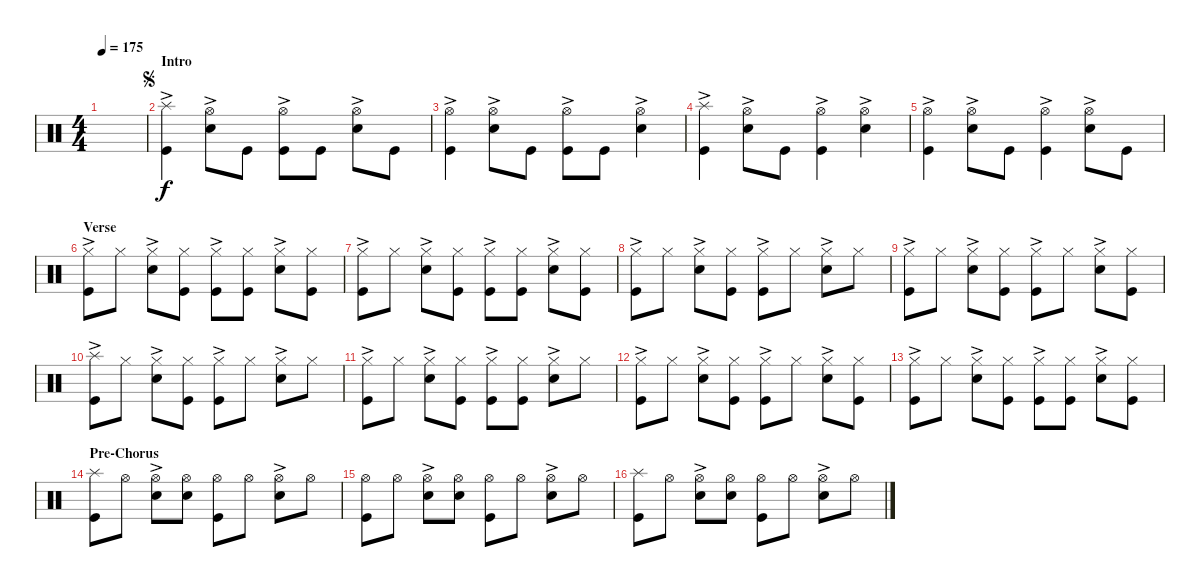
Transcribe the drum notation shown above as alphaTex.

\defaultSystemsLayout 4
\bracketExtendMode nobrackets
\singleTrackTrackNamePolicy hidden
\multiTrackTrackNamePolicy hidden
\firstSystemTrackNameOrientation horizontal
\otherSystemsTrackNameOrientation horizontal
\track ("Drumkit" "Drums") {instrument percussion}
\staff {score}
\articulation defaults
\ts (4 4)
\ac
\tempo 175
\clef neutral
\ks c
|
\section ("" "Intro")
\jump segno
("Kick (hit)"{ac} "Splash (hit)").4 ("Snare (hit) 2"{ac} "Hi-Hat (open)"{ac}).8 "Kick (hit)".8 ("Kick (hit)"{ac} "Hi-Hat (open)"{ac}).8 "Kick (hit)".8 ("Hi-Hat (open)"{ac} "Snare (hit) 2"{ac}).8 "Kick (hit)".8 |
("Kick (hit)"{ac} "Hi-Hat (open)"{ac}).4 ("Hi-Hat (open)"{ac} "Snare (hit) 2"{ac}).8 "Kick (hit)".8 ("Kick (hit)"{ac} "Hi-Hat (open)"{ac}).8 "Kick (hit)".8 ("Hi-Hat (open)"{ac} "Snare (hit) 2"{ac}).4 |
("Kick (hit)"{ac} "Splash (hit)").4 ("Snare (hit) 2"{ac} "Hi-Hat (open)"{ac}).8 "Kick (hit)".8 ("Kick (hit)"{ac} "Hi-Hat (open)"{ac}).4 ("Hi-Hat (open)"{ac} "Snare (hit) 2"{ac}).4 |
("Kick (hit)"{ac} "Hi-Hat (open)"{ac}).4 ("Hi-Hat (open)"{ac} "Snare (hit) 2"{ac}).8 "Kick (hit)".8 ("Kick (hit)"{ac} "Hi-Hat (open)"{ac}).4 ("Hi-Hat (open)"{ac} "Snare (hit) 2"{ac}).8 "Kick (hit)".8 |
\section ("" "Verse")
("Kick (hit)"{ac} "Hi-Hat (closed)").8 "Hi-Hat (closed)".8 ("Hi-Hat (closed)" "Snare (hit) 2"{ac}).8 ("Hi-Hat (closed)" "Kick (hit)").8 ("Kick (hit)"{ac} "Hi-Hat (closed)").8 ("Hi-Hat (closed)" "Kick (hit)").8 ("Hi-Hat (closed)" "Snare (hit) 2"{ac}).8 ("Hi-Hat (closed)" "Kick (hit)").8 |
("Kick (hit)"{ac} "Hi-Hat (closed)").8 "Hi-Hat (closed)".8 ("Hi-Hat (closed)" "Snare (hit) 2"{ac}).8 ("Hi-Hat (closed)" "Kick (hit)").8 ("Kick (hit)"{ac} "Hi-Hat (closed)").8 ("Hi-Hat (closed)" "Kick (hit)").8 ("Hi-Hat (closed)" "Snare (hit) 2"{ac}).8 ("Hi-Hat (closed)" "Kick (hit)").8 |
("Kick (hit)"{ac} "Hi-Hat (closed)").8 "Hi-Hat (closed)".8 ("Hi-Hat (closed)" "Snare (hit) 2"{ac}).8 ("Hi-Hat (closed)" "Kick (hit)").8 ("Kick (hit)"{ac} "Hi-Hat (closed)").8 "Hi-Hat (closed)".8 ("Hi-Hat (closed)" "Snare (hit) 2"{ac}).8 "Hi-Hat (closed)".8 |
("Kick (hit)"{ac} "Hi-Hat (closed)").8 "Hi-Hat (closed)".8 ("Hi-Hat (closed)" "Snare (hit) 2"{ac}).8 ("Hi-Hat (closed)" "Kick (hit)").8 ("Kick (hit)"{ac} "Hi-Hat (closed)").8 "Hi-Hat (closed)".8 ("Hi-Hat (closed)" "Snare (hit) 2"{ac}).8 ("Hi-Hat (closed)" "Kick (hit)").8 |
("Kick (hit)"{ac} "Splash (hit)").8 "Hi-Hat (closed)".8 ("Hi-Hat (closed)" "Snare (hit) 2"{ac}).8 ("Hi-Hat (closed)" "Kick (hit)").8 ("Kick (hit)"{ac} "Hi-Hat (closed)").8 "Hi-Hat (closed)".8 ("Hi-Hat (closed)" "Snare (hit) 2"{ac}).8 "Hi-Hat (closed)".8 |
("Kick (hit)"{ac} "Hi-Hat (closed)").8 "Hi-Hat (closed)".8 ("Hi-Hat (closed)" "Snare (hit) 2"{ac}).8 ("Hi-Hat (closed)" "Kick (hit)").8 ("Kick (hit)"{ac} "Hi-Hat (closed)").8 ("Hi-Hat (closed)" "Kick (hit)").8 ("Hi-Hat (closed)" "Snare (hit) 2"{ac}).8 "Hi-Hat (closed)".8 |
("Kick (hit)"{ac} "Hi-Hat (closed)").8 "Hi-Hat (closed)".8 ("Hi-Hat (closed)" "Snare (hit) 2"{ac}).8 ("Hi-Hat (closed)" "Kick (hit)").8 ("Kick (hit)"{ac} "Hi-Hat (closed)").8 "Hi-Hat (closed)".8 ("Hi-Hat (closed)" "Snare (hit) 2"{ac}).8 ("Hi-Hat (closed)" "Kick (hit)").8 |
("Kick (hit)"{ac} "Hi-Hat (closed)").8 "Hi-Hat (closed)".8 ("Hi-Hat (closed)" "Snare (hit) 2"{ac}).8 ("Hi-Hat (closed)" "Kick (hit)").8 ("Kick (hit)"{ac} "Hi-Hat (closed)").8 ("Hi-Hat (closed)" "Kick (hit)").8 ("Hi-Hat (closed)" "Snare (hit) 2"{ac}).8 ("Hi-Hat (closed)" "Kick (hit)").8 |
\section ("" "Pre-Chorus")
("Kick (hit)" "Splash (hit)").8 "Hi-Hat (open)".8 ("Hi-Hat (open)" "Snare (hit) 2"{ac}).8 ("Hi-Hat (open)" "Snare (hit) 2").8 ("Hi-Hat (open)" "Kick (hit)").8 "Hi-Hat (open)".8 ("Hi-Hat (open)" "Snare (hit) 2"{ac}).8 "Hi-Hat (open)".8 |
("Hi-Hat (open)" "Kick (hit)").8 "Hi-Hat (open)".8 ("Hi-Hat (open)" "Snare (hit) 2"{ac}).8 ("Hi-Hat (open)" "Snare (hit) 2").8 ("Hi-Hat (open)" "Kick (hit)").8 "Hi-Hat (open)".8 ("Hi-Hat (open)" "Snare (hit) 2"{ac}).8 "Hi-Hat (open)".8 |
("Kick (hit)" "Splash (hit)").8 "Hi-Hat (open)".8 ("Hi-Hat (open)" "Snare (hit) 2"{ac}).8 ("Hi-Hat (open)" "Snare (hit) 2").8 ("Hi-Hat (open)" "Kick (hit)").8 "Hi-Hat (open)".8 ("Hi-Hat (open)" "Snare (hit) 2"{ac}).8 "Hi-Hat (open)".8
